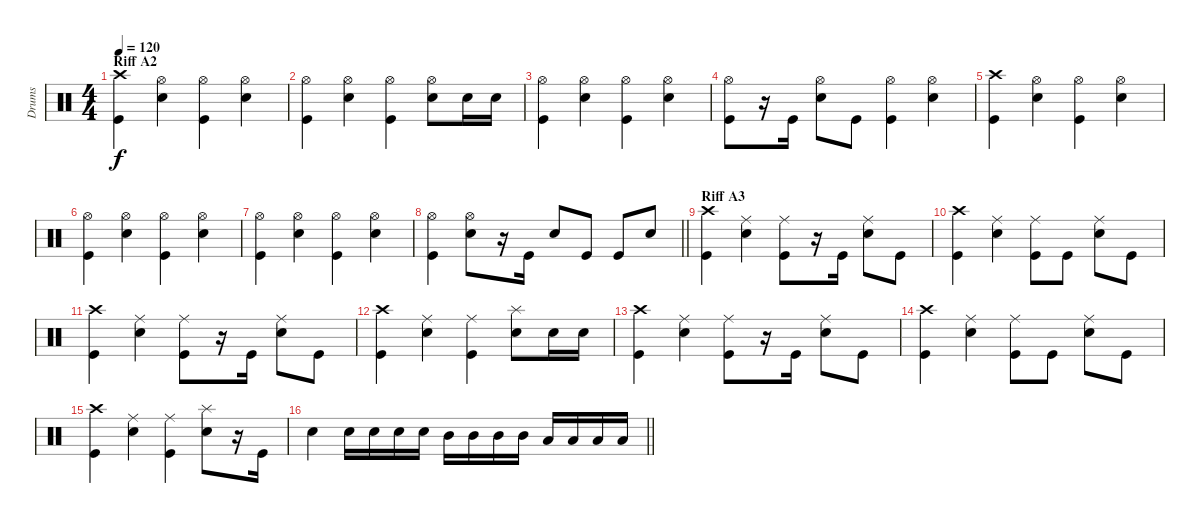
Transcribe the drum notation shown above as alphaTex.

\track ("Drums" "Drums") {instrument percussion}
\staff {score}
\articulation defaults
\ts (4 4)
\section ("" "Riff A2")
\tempo 120
\clef neutral
\ks c
("Crash high (hit)" "Kick (hit)").4{dy f} ("Hi-Hat (open)" "Snare (hit) 2").4 ("Hi-Hat (open)" "Kick (hit)").4 ("Hi-Hat (open)" "Snare (hit) 2").4 |
("Hi-Hat (open)" "Kick (hit)").4 ("Hi-Hat (open)" "Snare (hit) 2").4 ("Hi-Hat (open)" "Kick (hit)").4 ("Hi-Hat (open)" "Snare (hit) 2").8 "Snare (hit) 2".16 "Snare (hit) 2".16 |
("Hi-Hat (open)" "Kick (hit)").4 ("Hi-Hat (open)" "Snare (hit) 2").4 ("Hi-Hat (open)" "Kick (hit)").4 ("Hi-Hat (open)" "Snare (hit) 2").4 |
("Hi-Hat (open)" "Kick (hit)").8 r.16 "Kick (hit)".16 ("Hi-Hat (open)" "Snare (hit) 2").8 "Kick (hit)".8 ("Hi-Hat (open)" "Kick (hit)").4 ("Hi-Hat (open)" "Snare (hit) 2").4 |
("Crash high (hit)" "Kick (hit)").4 ("Hi-Hat (open)" "Snare (hit) 2").4 ("Hi-Hat (open)" "Kick (hit)").4 ("Hi-Hat (open)" "Snare (hit) 2").4 |
("Hi-Hat (open)" "Kick (hit)").4 ("Hi-Hat (open)" "Snare (hit) 2").4 ("Hi-Hat (open)" "Kick (hit)").4 ("Hi-Hat (open)" "Snare (hit) 2").4 |
("Hi-Hat (open)" "Kick (hit)").4 ("Hi-Hat (open)" "Snare (hit) 2").4 ("Hi-Hat (open)" "Kick (hit)").4 ("Hi-Hat (open)" "Snare (hit) 2").4 |
\barLineRight lightlight
("Hi-Hat (open)" "Kick (hit)").4 ("Hi-Hat (open)" "Snare (hit) 2").8 r.16 "Kick (hit)".16 "Snare (hit) 2".8 "Kick (hit)".8 "Kick (hit)".8 "Snare (hit) 2".8 |
\section ("" "Riff A3")
("Crash high (hit)" "Kick (hit)").4 ("Ride (middle)" "Snare (hit) 2").4 ("Ride (middle)" "Kick (hit)").8 r.16 "Kick (hit)".16 ("Ride (middle)" "Snare (hit) 2").8 "Kick (hit)".8 |
("Crash high (hit)" "Kick (hit)").4 ("Ride (middle)" "Snare (hit) 2").4 ("Ride (middle)" "Kick (hit)").8 "Kick (hit)".8 ("Ride (middle)" "Snare (hit) 2").8 "Kick (hit)".8 |
("Crash high (hit)" "Kick (hit)").4 ("Ride (middle)" "Snare (hit) 2").4 ("Ride (middle)" "Kick (hit)").8 r.16 "Kick (hit)".16 ("Ride (middle)" "Snare (hit) 2").8 "Kick (hit)".8 |
("Crash high (hit)" "Kick (hit)").4 ("Ride (middle)" "Snare (hit) 2").4 ("Ride (middle)" "Kick (hit)").4 ("Splash (hit)" "Snare (hit) 2").8 "Snare (hit) 2".16 "Snare (hit) 2".16 |
("Crash high (hit)" "Kick (hit)").4 ("Ride (middle)" "Snare (hit) 2").4 ("Ride (middle)" "Kick (hit)").8 r.16 "Kick (hit)".16 ("Ride (middle)" "Snare (hit) 2").8 "Kick (hit)".8 |
("Crash high (hit)" "Kick (hit)").4 ("Ride (middle)" "Snare (hit) 2").4 ("Ride (middle)" "Kick (hit)").8 "Kick (hit)".8 ("Ride (middle)" "Snare (hit) 2").8 "Kick (hit)".8 |
("Crash high (hit)" "Kick (hit)").4 ("Ride (middle)" "Snare (hit) 2").4 ("Ride (middle)" "Kick (hit)").4 ("Splash (hit)" "Snare (hit) 2").8 r.16 "Kick (hit)".16 |
\barLineRight lightlight "Snare (hit) 2".4 "Snare (hit) 2".16 "Snare (hit) 2".16 "Snare (hit) 2".16 "Snare (hit) 2".16 "Mid Tom (hit)".16 "Mid Tom (hit)".16 "Mid Tom (hit)".16 "Mid Tom (hit)".16 "Low Tom (hit)".16 "Low Tom (hit)".16 "Low Tom (hit)".16 "Low Tom (hit)".16
